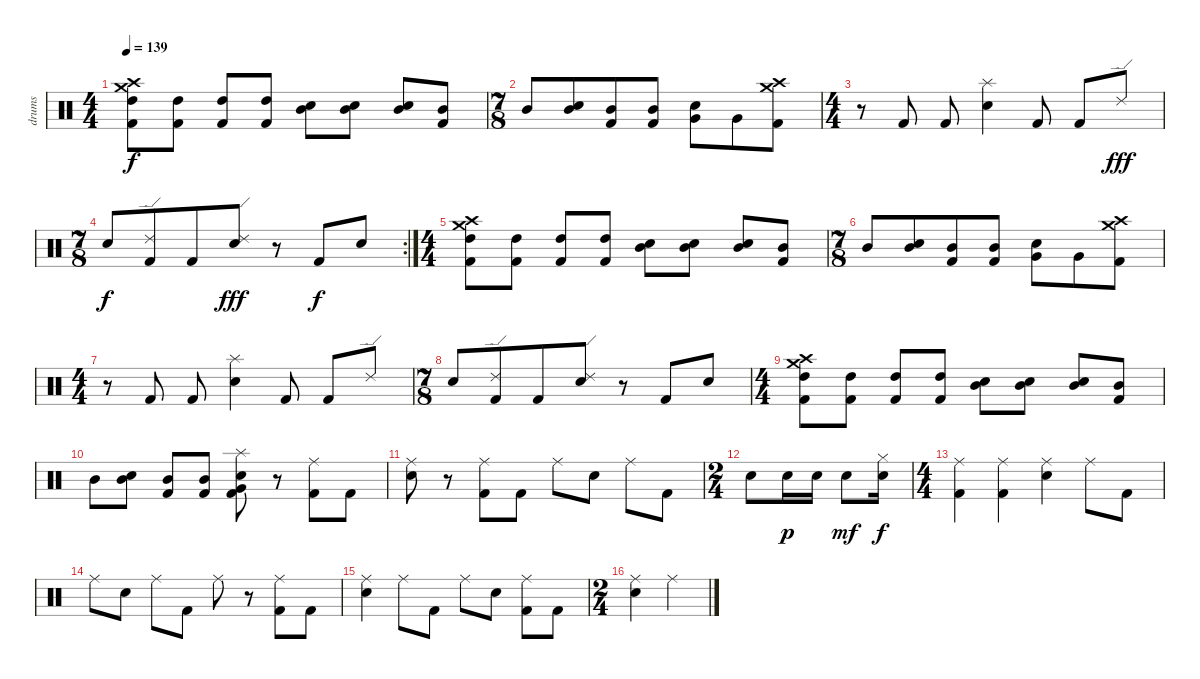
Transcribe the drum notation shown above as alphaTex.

\track ("drums" "drums") {instrument percussion}
\staff {score}
\articulation defaults
\ts (4 4)
\tempo 139
\clef neutral
\ks c
("Crash medium (hit)" "Crash high (hit)" "High Tom (hit)" "Kick (hit) 2").8{dy f} ("High Tom (hit)" "Kick (hit) 2").8 ("High Tom (hit)" "Kick (hit) 2").8 ("High Tom (hit)" "Kick (hit) 2").8 ("Mid Tom (hit)" "Electric Snare (hit)").8 ("Mid Tom (hit)" "Electric Snare (hit)").8 ("Mid Tom (hit)" "Electric Snare (hit)").8 ("Mid Tom (hit)" "Kick (hit) 2").8 |
\ts (7 8)
"Mid Tom (hit)".8 ("Mid Tom (hit)" "Electric Snare (hit)").8 ("Mid Tom (hit)" "Kick (hit) 2").8 ("Mid Tom (hit)" "Kick (hit) 2").8 ("Very Low Tom (hit)" "Electric Snare (hit)").8 "Very Low Tom (hit)".8 ("Crash medium (hit)" "Crash high (hit)" "Kick (hit) 2").8 |
\ts (4 4)
r.8 "Kick (hit) 2".8 "Kick (hit) 2".8 ("Splash (hit)" "Electric Snare (hit)").4 "Kick (hit) 2".8 "Kick (hit) 2".8 "Ride (edge) 2".8{dy fff} |
\rc 2
\ts (7 8)
"Electric Snare (hit)".8{dy f} ("Ride (edge) 2" "Kick (hit) 2").8 "Kick (hit) 2".8 ("Ride (edge) 2" "Electric Snare (hit)").8{dy fff} r.8 "Kick (hit) 2".8{dy f} "Electric Snare (hit)".8 |
\ts (4 4)
("Crash medium (hit)" "Crash high (hit)" "High Tom (hit)" "Kick (hit) 2").8 ("High Tom (hit)" "Kick (hit) 2").8 ("High Tom (hit)" "Kick (hit) 2").8 ("High Tom (hit)" "Kick (hit) 2").8 ("Mid Tom (hit)" "Electric Snare (hit)").8 ("Mid Tom (hit)" "Electric Snare (hit)").8 ("Mid Tom (hit)" "Electric Snare (hit)").8 ("Mid Tom (hit)" "Kick (hit) 2").8 |
\ts (7 8)
"Mid Tom (hit)".8 ("Mid Tom (hit)" "Electric Snare (hit)").8 ("Mid Tom (hit)" "Kick (hit) 2").8 ("Mid Tom (hit)" "Kick (hit) 2").8 ("Very Low Tom (hit)" "Electric Snare (hit)").8 "Very Low Tom (hit)".8 ("Crash medium (hit)" "Crash high (hit)" "Kick (hit) 2").8 |
\ts (4 4)
r.8 "Kick (hit) 2".8 "Kick (hit) 2".8 ("Splash (hit)" "Electric Snare (hit)").4 "Kick (hit) 2".8 "Kick (hit) 2".8 "Ride (edge) 2".8 |
\ts (7 8)
"Electric Snare (hit)".8 ("Ride (edge) 2" "Kick (hit) 2").8 "Kick (hit) 2".8 ("Ride (edge) 2" "Electric Snare (hit)").8 r.8 "Kick (hit) 2".8 "Electric Snare (hit)".8 |
\ts (4 4)
("Crash medium (hit)" "Crash high (hit)" "High Tom (hit)" "Kick (hit) 2").8 ("High Tom (hit)" "Kick (hit) 2").8 ("High Tom (hit)" "Kick (hit) 2").8 ("High Tom (hit)" "Kick (hit) 2").8 ("Mid Tom (hit)" "Electric Snare (hit)").8 ("Mid Tom (hit)" "Electric Snare (hit)").8 ("Mid Tom (hit)" "Electric Snare (hit)").8 ("Mid Tom (hit)" "Kick (hit) 2").8 |
"Mid Tom (hit)".8 ("Mid Tom (hit)" "Electric Snare (hit)").8 ("Mid Tom (hit)" "Kick (hit) 2").8 ("Mid Tom (hit)" "Kick (hit) 2").8 ("Splash (hit)" "Very Low Tom (hit)" "Electric Snare (hit)" "Kick (hit) 2").8 r.8 ("Ride (middle)" "Kick (hit) 2").8 "Kick (hit) 2".8 |
("Ride (middle)" "Electric Snare (hit)").8 r.8 ("Ride (middle)" "Kick (hit) 2").8 "Kick (hit) 2".8 "Ride (middle)".8 "Electric Snare (hit)".8 "Ride (middle)".8 "Kick (hit) 2".8 |
\ts (2 4)
"Electric Snare (hit)".8 "Electric Snare (hit)".16{dy p} "Electric Snare (hit)".16 "Electric Snare (hit)".8{dy mf} ("Hi-Hat (closed)" "Electric Snare (hit)").16{dy f} |
\ts (4 4)
("Ride (middle)" "Kick (hit) 2").4 ("Ride (middle)" "Kick (hit) 2").4 ("Ride (middle)" "Electric Snare (hit)").4 "Ride (middle)".8 "Kick (hit) 2".8 |
"Ride (middle)".8 "Electric Snare (hit)".8 "Ride (middle)".8 "Kick (hit) 2".8 "Ride (middle)".8 r.8 ("Ride (middle)" "Kick (hit) 2").8 "Kick (hit) 2".8 |
("Ride (middle)" "Electric Snare (hit)").4 "Ride (middle)".8 "Kick (hit) 2".8 "Ride (middle)".8 "Electric Snare (hit)".8 ("Ride (middle)" "Kick (hit) 2").8 "Kick (hit) 2".8 |
\ts (2 4)
("Ride (middle)" "Electric Snare (hit)").4 "Ride (middle)".4
